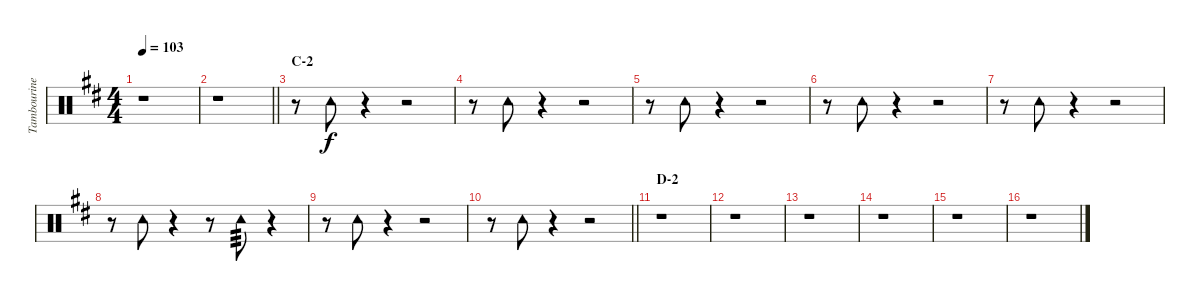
\track ("Tambourine" "Tambourine") {instrument percussion}
\staff {score}
\articulation defaults
\ts (4 4)
\tempo 103
\clef neutral
\ks d
r.1{dy f} |
\barLineRight lightlight
r.1 |
\section ("" "C-2")
r.8 "Tambourine (hit)".8 r.4 r.2 |
r.8 "Tambourine (hit)".8 r.4 r.2 |
r.8 "Tambourine (hit)".8 r.4 r.2 |
r.8 "Tambourine (hit)".8 r.4 r.2 |
r.8 "Tambourine (hit)".8 r.4 r.2 |
r.8 "Tambourine (hit)".8 r.4 r.8 "Tambourine (hit)".8{tp 3} r.4 |
r.8 "Tambourine (hit)".8 r.4 r.2 |
\barLineRight lightlight
r.8 "Tambourine (hit)".8 r.4 r.2 |
\section ("" "D-2")
r.1 |
r.1 |
r.1 |
r.1 |
r.1 |
r.1
